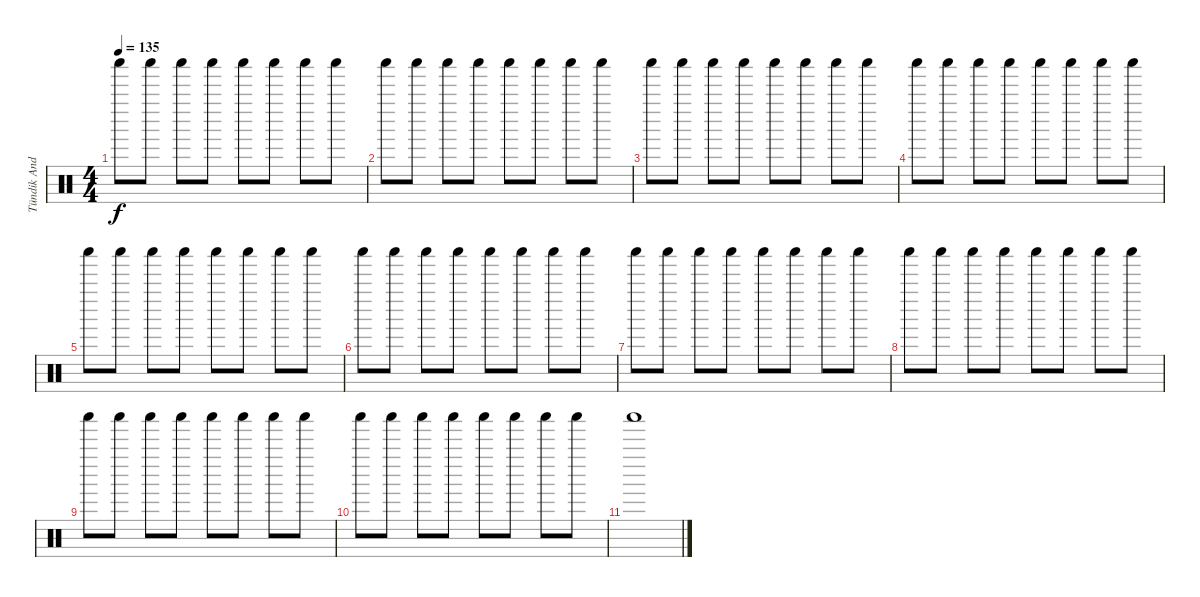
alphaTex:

\track ("Tündik András - Shaker" "Tündik And") {instrument percussion}
\staff {score}
\articulation defaults
\ts (4 4)
\tempo 135
\clef neutral
\ks c "Shaker (hit)".8{dy f} "Shaker (hit)".8 "Shaker (hit)".8 "Shaker (hit)".8 "Shaker (hit)".8 "Shaker (hit)".8 "Shaker (hit)".8 "Shaker (hit)".8
|
"Shaker (hit)".8 "Shaker (hit)".8 "Shaker (hit)".8 "Shaker (hit)".8 "Shaker (hit)".8 "Shaker (hit)".8 "Shaker (hit)".8 "Shaker (hit)".8 |
"Shaker (hit)".8 "Shaker (hit)".8 "Shaker (hit)".8 "Shaker (hit)".8 "Shaker (hit)".8 "Shaker (hit)".8 "Shaker (hit)".8 "Shaker (hit)".8 |
"Shaker (hit)".8 "Shaker (hit)".8 "Shaker (hit)".8 "Shaker (hit)".8 "Shaker (hit)".8 "Shaker (hit)".8 "Shaker (hit)".8 "Shaker (hit)".8 |
"Shaker (hit)".8 "Shaker (hit)".8 "Shaker (hit)".8 "Shaker (hit)".8 "Shaker (hit)".8 "Shaker (hit)".8 "Shaker (hit)".8 "Shaker (hit)".8 |
"Shaker (hit)".8 "Shaker (hit)".8 "Shaker (hit)".8 "Shaker (hit)".8 "Shaker (hit)".8 "Shaker (hit)".8 "Shaker (hit)".8 "Shaker (hit)".8 |
"Shaker (hit)".8 "Shaker (hit)".8 "Shaker (hit)".8 "Shaker (hit)".8 "Shaker (hit)".8 "Shaker (hit)".8 "Shaker (hit)".8 "Shaker (hit)".8 |
"Shaker (hit)".8 "Shaker (hit)".8 "Shaker (hit)".8 "Shaker (hit)".8 "Shaker (hit)".8 "Shaker (hit)".8 "Shaker (hit)".8 "Shaker (hit)".8 |
"Shaker (hit)".8 "Shaker (hit)".8 "Shaker (hit)".8 "Shaker (hit)".8 "Shaker (hit)".8 "Shaker (hit)".8 "Shaker (hit)".8 "Shaker (hit)".8 |
"Shaker (hit)".8 "Shaker (hit)".8 "Shaker (hit)".8 "Shaker (hit)".8 "Shaker (hit)".8 "Shaker (hit)".8 "Shaker (hit)".8 "Shaker (hit)".8 |
"Shaker (hit)".1
